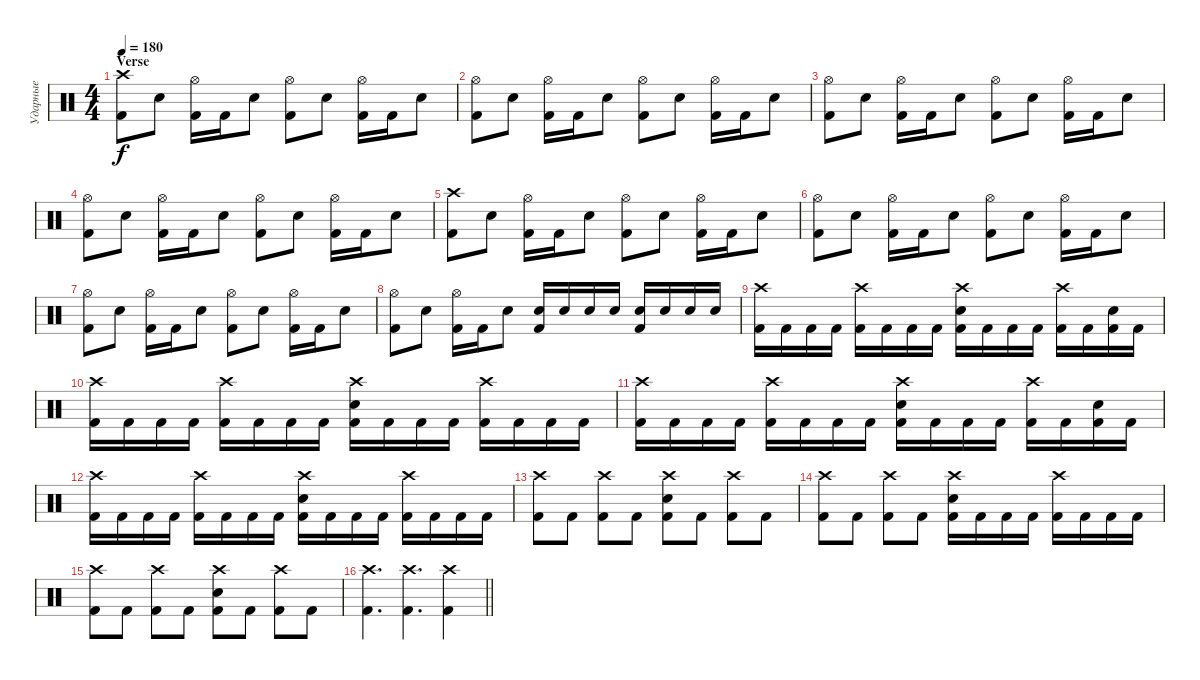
\track ("Ударные" "Ударные") {instrument percussion}
\staff {score}
\articulation defaults
\ts (4 4)
\section ("" "Verse")
\tempo 180
\clef neutral
\ks c
("Crash high (hit)" "Kick (hit) 2").8{dy f} "Electric Snare (hit)".8 ("Hi-Hat (open)" "Kick (hit) 2").16 "Kick (hit) 2".16 "Electric Snare (hit)".8 ("Hi-Hat (open)" "Kick (hit) 2").8 "Electric Snare (hit)".8 ("Hi-Hat (open)" "Kick (hit) 2").16 "Kick (hit) 2".16 "Electric Snare (hit)".8 |
("Hi-Hat (open)" "Kick (hit) 2").8 "Electric Snare (hit)".8 ("Hi-Hat (open)" "Kick (hit) 2").16 "Kick (hit) 2".16 "Electric Snare (hit)".8 ("Hi-Hat (open)" "Kick (hit) 2").8 "Electric Snare (hit)".8 ("Hi-Hat (open)" "Kick (hit) 2").16 "Kick (hit) 2".16 "Electric Snare (hit)".8 |
("Hi-Hat (open)" "Kick (hit) 2").8 "Electric Snare (hit)".8 ("Hi-Hat (open)" "Kick (hit) 2").16 "Kick (hit) 2".16 "Electric Snare (hit)".8 ("Hi-Hat (open)" "Kick (hit) 2").8 "Electric Snare (hit)".8 ("Hi-Hat (open)" "Kick (hit) 2").16 "Kick (hit) 2".16 "Electric Snare (hit)".8 |
("Hi-Hat (open)" "Kick (hit) 2").8 "Electric Snare (hit)".8 ("Hi-Hat (open)" "Kick (hit) 2").16 "Kick (hit) 2".16 "Electric Snare (hit)".8 ("Hi-Hat (open)" "Kick (hit) 2").8 "Electric Snare (hit)".8 ("Hi-Hat (open)" "Kick (hit) 2").16 "Kick (hit) 2".16 "Electric Snare (hit)".8 |
("Crash high (hit)" "Kick (hit) 2").8 "Electric Snare (hit)".8 ("Hi-Hat (open)" "Kick (hit) 2").16 "Kick (hit) 2".16 "Electric Snare (hit)".8 ("Hi-Hat (open)" "Kick (hit) 2").8 "Electric Snare (hit)".8 ("Hi-Hat (open)" "Kick (hit) 2").16 "Kick (hit) 2".16 "Electric Snare (hit)".8 |
("Hi-Hat (open)" "Kick (hit) 2").8 "Electric Snare (hit)".8 ("Hi-Hat (open)" "Kick (hit) 2").16 "Kick (hit) 2".16 "Electric Snare (hit)".8 ("Hi-Hat (open)" "Kick (hit) 2").8 "Electric Snare (hit)".8 ("Hi-Hat (open)" "Kick (hit) 2").16 "Kick (hit) 2".16 "Electric Snare (hit)".8 |
("Hi-Hat (open)" "Kick (hit) 2").8 "Electric Snare (hit)".8 ("Hi-Hat (open)" "Kick (hit) 2").16 "Kick (hit) 2".16 "Electric Snare (hit)".8 ("Hi-Hat (open)" "Kick (hit) 2").8 "Electric Snare (hit)".8 ("Hi-Hat (open)" "Kick (hit) 2").16 "Kick (hit) 2".16 "Electric Snare (hit)".8 |
("Hi-Hat (open)" "Kick (hit) 2").8 "Electric Snare (hit)".8 ("Hi-Hat (open)" "Kick (hit) 2").16 "Kick (hit) 2".16 "Electric Snare (hit)".8 ("Electric Snare (hit)" "Kick (hit) 2").16 "Electric Snare (hit)".16 "Electric Snare (hit)".16 "Electric Snare (hit)".16 ("Electric Snare (hit)" "Kick (hit) 2").16 "Electric Snare (hit)".16 "Electric Snare (hit)".16 "Electric Snare (hit)".16 |
("Crash high (hit)" "Kick (hit) 2").16 "Kick (hit) 2".16 "Kick (hit) 2".16 "Kick (hit) 2".16 ("Crash high (hit)" "Kick (hit) 2").16 "Kick (hit) 2".16 "Kick (hit) 2".16 "Kick (hit) 2".16 ("Crash high (hit)" "Electric Snare (hit)" "Kick (hit) 2").16 "Kick (hit) 2".16 "Kick (hit) 2".16 "Kick (hit) 2".16 ("Crash high (hit)" "Kick (hit) 2").16 "Kick (hit) 2".16 ("Electric Snare (hit)" "Kick (hit) 2").16 "Kick (hit) 2".16 |
("Crash high (hit)" "Kick (hit) 2").16 "Kick (hit) 2".16 "Kick (hit) 2".16 "Kick (hit) 2".16 ("Crash high (hit)" "Kick (hit) 2").16 "Kick (hit) 2".16 "Kick (hit) 2".16 "Kick (hit) 2".16 ("Crash high (hit)" "Electric Snare (hit)" "Kick (hit) 2").16 "Kick (hit) 2".16 "Kick (hit) 2".16 "Kick (hit) 2".16 ("Crash high (hit)" "Kick (hit) 2").16 "Kick (hit) 2".16 "Kick (hit) 2".16 "Kick (hit) 2".16 |
("Crash high (hit)" "Kick (hit) 2").16 "Kick (hit) 2".16 "Kick (hit) 2".16 "Kick (hit) 2".16 ("Crash high (hit)" "Kick (hit) 2").16 "Kick (hit) 2".16 "Kick (hit) 2".16 "Kick (hit) 2".16 ("Crash high (hit)" "Electric Snare (hit)" "Kick (hit) 2").16 "Kick (hit) 2".16 "Kick (hit) 2".16 "Kick (hit) 2".16 ("Crash high (hit)" "Kick (hit) 2").16 "Kick (hit) 2".16 ("Electric Snare (hit)" "Kick (hit) 2").16 "Kick (hit) 2".16 |
("Crash high (hit)" "Kick (hit) 2").16 "Kick (hit) 2".16 "Kick (hit) 2".16 "Kick (hit) 2".16 ("Crash high (hit)" "Kick (hit) 2").16 "Kick (hit) 2".16 "Kick (hit) 2".16 "Kick (hit) 2".16 ("Crash high (hit)" "Electric Snare (hit)" "Kick (hit) 2").16 "Kick (hit) 2".16 "Kick (hit) 2".16 "Kick (hit) 2".16 ("Crash high (hit)" "Kick (hit) 2").16 "Kick (hit) 2".16 "Kick (hit) 2".16 "Kick (hit) 2".16 |
("Crash high (hit)" "Kick (hit) 2").8 "Kick (hit) 2".8 ("Crash high (hit)" "Kick (hit) 2").8 "Kick (hit) 2".8 ("Crash high (hit)" "Electric Snare (hit)" "Kick (hit) 2").8 "Kick (hit) 2".8 ("Crash high (hit)" "Kick (hit) 2").8 "Kick (hit) 2".8 |
("Crash high (hit)" "Kick (hit) 2").8 "Kick (hit) 2".8 ("Crash high (hit)" "Kick (hit) 2").8 "Kick (hit) 2".8 ("Crash high (hit)" "Electric Snare (hit)" "Kick (hit) 2").16 "Kick (hit) 2".16 "Kick (hit) 2".16 "Kick (hit) 2".16 ("Crash high (hit)" "Kick (hit) 2").16 "Kick (hit) 2".16 "Kick (hit) 2".16 "Kick (hit) 2".16 |
("Crash high (hit)" "Kick (hit) 2").8 "Kick (hit) 2".8 ("Crash high (hit)" "Kick (hit) 2").8 "Kick (hit) 2".8 ("Crash high (hit)" "Electric Snare (hit)" "Kick (hit) 2").8 "Kick (hit) 2".8 ("Crash high (hit)" "Kick (hit) 2").8 "Kick (hit) 2".8 |
\barLineRight lightlight
("Crash high (hit)" "Kick (hit) 2").4{d} ("Crash high (hit)" "Kick (hit) 2").4{d} ("Crash high (hit)" "Kick (hit) 2").4
